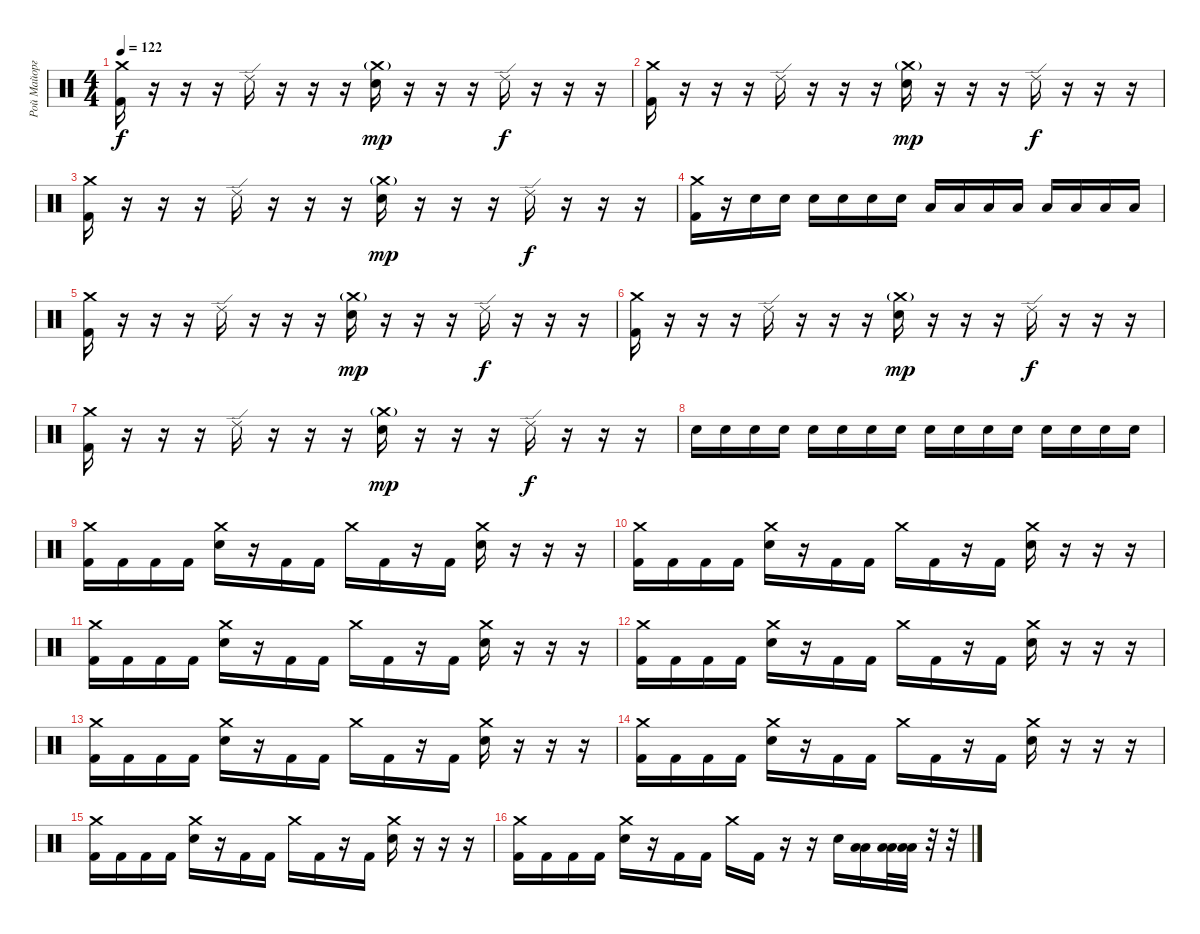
\track ("Рой Майорга" "Рой Майорг") {instrument percussion}
\staff {score}
\articulation defaults
\ts (4 4)
\tempo 122
\clef neutral
\ks c
("Crash medium (hit)" "Kick (hit) 2").16{dy f} r.16 r.16 r.16 "Ride (edge) 2".16 r.16 r.16 r.16 ("Crash medium (hit)"{g} "Electric Snare (hit)").16{dy mp} r.16 r.16 r.16 "Ride (edge) 2".16{dy f} r.16 r.16 r.16 |
("Crash medium (hit)" "Kick (hit) 2").16 r.16 r.16 r.16 "Ride (edge) 2".16 r.16 r.16 r.16 ("Crash medium (hit)"{g} "Electric Snare (hit)").16{dy mp} r.16 r.16 r.16 "Ride (edge) 2".16{dy f} r.16 r.16 r.16 |
("Crash medium (hit)" "Kick (hit) 2").16 r.16 r.16 r.16 "Ride (edge) 2".16 r.16 r.16 r.16 ("Crash medium (hit)"{g} "Electric Snare (hit)").16{dy mp} r.16 r.16 r.16 "Ride (edge) 2".16{dy f} r.16 r.16 r.16 |
("Crash medium (hit)" "Kick (hit) 2").16 r.16 "Electric Snare (hit)".16 "Electric Snare (hit)".16 "Electric Snare (hit)".16 "Electric Snare (hit)".16 "Electric Snare (hit)".16 "Electric Snare (hit)".16 "Low Tom (hit)".16 "Low Tom (hit)".16 "Low Tom (hit)".16 "Low Tom (hit)".16 "Low Tom (hit)".16 "Low Tom (hit)".16 "Low Tom (hit)".16 "Low Tom (hit)".16 |
("Crash medium (hit)" "Kick (hit) 2").16 r.16 r.16 r.16 "Ride (edge) 2".16 r.16 r.16 r.16 ("Crash medium (hit)"{g} "Electric Snare (hit)").16{dy mp} r.16 r.16 r.16 "Ride (edge) 2".16{dy f} r.16 r.16 r.16 |
("Crash medium (hit)" "Kick (hit) 2").16 r.16 r.16 r.16 "Ride (edge) 2".16 r.16 r.16 r.16 ("Crash medium (hit)"{g} "Electric Snare (hit)").16{dy mp} r.16 r.16 r.16 "Ride (edge) 2".16{dy f} r.16 r.16 r.16 |
("Crash medium (hit)" "Kick (hit) 2").16 r.16 r.16 r.16 "Ride (edge) 2".16 r.16 r.16 r.16 ("Crash medium (hit)"{g} "Electric Snare (hit)").16{dy mp} r.16 r.16 r.16 "Ride (edge) 2".16{dy f} r.16 r.16 r.16 |
"Electric Snare (hit)".16 "Electric Snare (hit)".16 "Electric Snare (hit)".16 "Electric Snare (hit)".16 "Electric Snare (hit)".16 "Electric Snare (hit)".16 "Electric Snare (hit)".16 "Electric Snare (hit)".16 "Electric Snare (hit)".16 "Electric Snare (hit)".16 "Electric Snare (hit)".16 "Electric Snare (hit)".16 "Electric Snare (hit)".16 "Electric Snare (hit)".16 "Electric Snare (hit)".16 "Electric Snare (hit)".16 |
("Crash medium (hit)" "Kick (hit) 2").16 "Kick (hit) 2".16 "Kick (hit) 2".16 "Kick (hit) 2".16 ("Crash medium (hit)" "Electric Snare (hit)").16 r.16 "Kick (hit) 2".16 "Kick (hit) 2".16 "Crash medium (hit)".16 "Kick (hit) 2".16 r.16 "Kick (hit) 2".16 ("Crash medium (hit)" "Electric Snare (hit)").16 r.16 r.16 r.16 |
("Crash medium (hit)" "Kick (hit) 2").16 "Kick (hit) 2".16 "Kick (hit) 2".16 "Kick (hit) 2".16 ("Crash medium (hit)" "Electric Snare (hit)").16 r.16 "Kick (hit) 2".16 "Kick (hit) 2".16 "Crash medium (hit)".16 "Kick (hit) 2".16 r.16 "Kick (hit) 2".16 ("Crash medium (hit)" "Electric Snare (hit)").16 r.16 r.16 r.16 |
("Crash medium (hit)" "Kick (hit) 2").16 "Kick (hit) 2".16 "Kick (hit) 2".16 "Kick (hit) 2".16 ("Crash medium (hit)" "Electric Snare (hit)").16 r.16 "Kick (hit) 2".16 "Kick (hit) 2".16 "Crash medium (hit)".16 "Kick (hit) 2".16 r.16 "Kick (hit) 2".16 ("Crash medium (hit)" "Electric Snare (hit)").16 r.16 r.16 r.16 |
("Crash medium (hit)" "Kick (hit) 2").16 "Kick (hit) 2".16 "Kick (hit) 2".16 "Kick (hit) 2".16 ("Crash medium (hit)" "Electric Snare (hit)").16 r.16 "Kick (hit) 2".16 "Kick (hit) 2".16 "Crash medium (hit)".16 "Kick (hit) 2".16 r.16 "Kick (hit) 2".16 ("Crash medium (hit)" "Electric Snare (hit)").16 r.16 r.16 r.16 |
("Crash medium (hit)" "Kick (hit) 2").16 "Kick (hit) 2".16 "Kick (hit) 2".16 "Kick (hit) 2".16 ("Crash medium (hit)" "Electric Snare (hit)").16 r.16 "Kick (hit) 2".16 "Kick (hit) 2".16 "Crash medium (hit)".16 "Kick (hit) 2".16 r.16 "Kick (hit) 2".16 ("Crash medium (hit)" "Electric Snare (hit)").16 r.16 r.16 r.16 |
("Crash medium (hit)" "Kick (hit) 2").16 "Kick (hit) 2".16 "Kick (hit) 2".16 "Kick (hit) 2".16 ("Crash medium (hit)" "Electric Snare (hit)").16 r.16 "Kick (hit) 2".16 "Kick (hit) 2".16 "Crash medium (hit)".16 "Kick (hit) 2".16 r.16 "Kick (hit) 2".16 ("Crash medium (hit)" "Electric Snare (hit)").16 r.16 r.16 r.16 |
("Crash medium (hit)" "Kick (hit) 2").16 "Kick (hit) 2".16 "Kick (hit) 2".16 "Kick (hit) 2".16 ("Crash medium (hit)" "Electric Snare (hit)").16 r.16 "Kick (hit) 2".16 "Kick (hit) 2".16 "Crash medium (hit)".16 "Kick (hit) 2".16 r.16 "Kick (hit) 2".16 ("Crash medium (hit)" "Electric Snare (hit)").16 r.16 r.16 r.16 |
("Crash medium (hit)" "Kick (hit) 2").16 "Kick (hit) 2".16 "Kick (hit) 2".16 "Kick (hit) 2".16 ("Crash medium (hit)" "Electric Snare (hit)").16 r.16 "Kick (hit) 2".16 "Kick (hit) 2".16 "Crash medium (hit)".16 "Kick (hit) 2".16 r.16 r.16 "Electric Snare (hit)".16 ("Low Tom (hit)" "Low Tom (hit)").16 ("Low Tom (hit)" "Low Tom (hit)").32 ("Low Tom (hit)" "Low Tom (hit)").32 r.32 r.32
